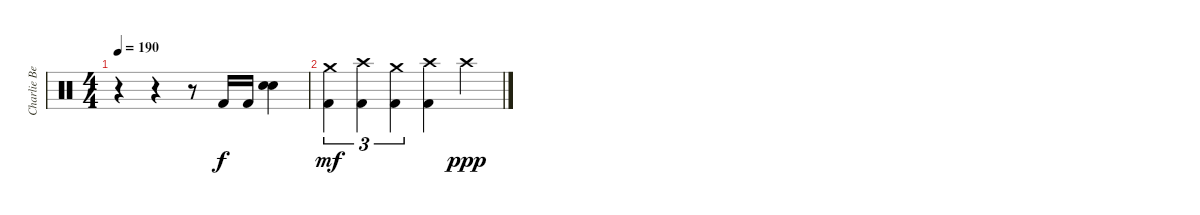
\track ("Charlie Benante" "Charlie Be") {instrument percussion}
\staff {score}
\articulation defaults
\ts (4 4)
\tempo 190
\clef neutral
\ks c
r.4{dy mf} r.4 r.8 "Kick (hit) 2".16{dy f} "Kick (hit) 2".16 ("Snare (hit) 2" "Snare (hit) 2").4{bd 480} |
("Kick (hit) 2" "Crash medium (hit)").4{tu (3 2) dy mf} ("Kick (hit) 2" "Crash high (hit)").4{tu (3 2)} ("Kick (hit) 2" "Crash medium (hit)").4{tu (3 2)} ("Kick (hit) 2" "Crash high (hit)").4 "Crash high (hit)".4{dy ppp}
